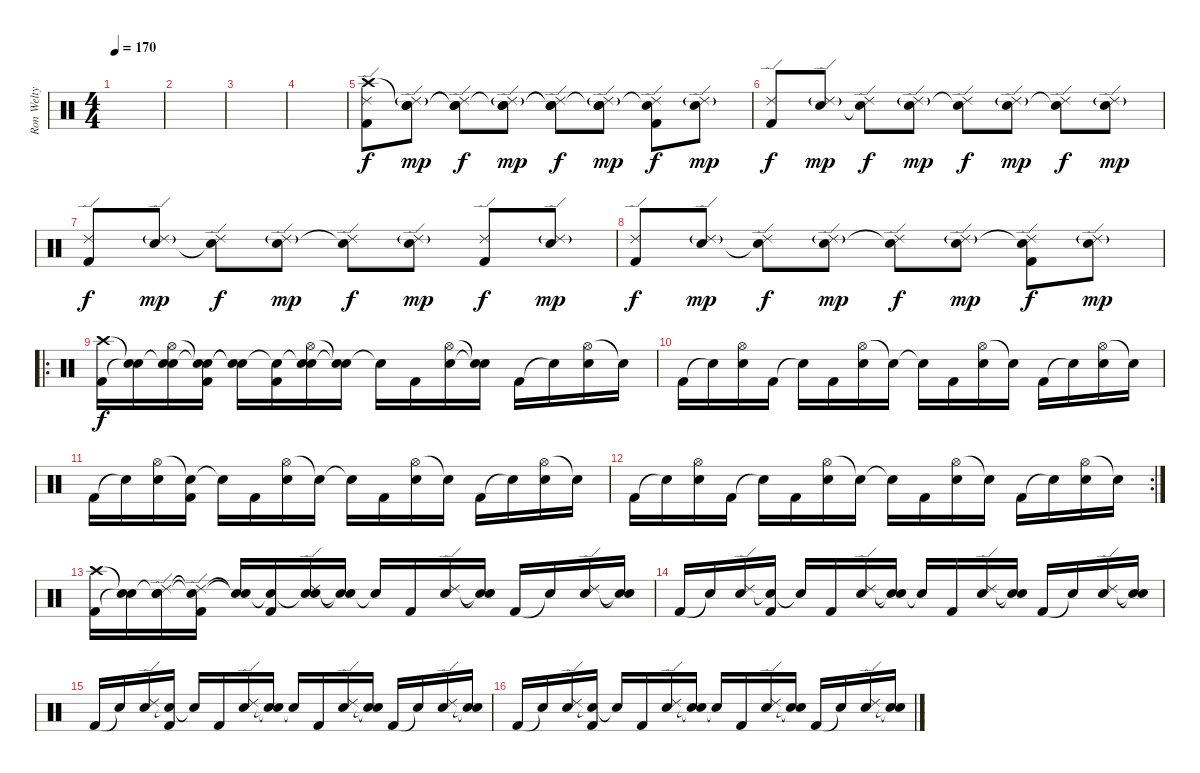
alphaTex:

\track ("Ron Welty" "Ron Welty") {instrument percussion}
\staff {score}
\articulation defaults
\ts (4 4)
\tempo 170
\clef neutral
\ks c
|
|
|
|
("Crash high (hit)" "Ride (edge) 2" "Kick (hit) 2").8 ("Snare (hit)"{t} "Ride (edge) 2"{g} "Electric Snare (hit)").8{dy mp} ("Snare (hit)"{t} "Ride (edge) 2" "Snare (hit)"{t}).8{dy f} ("Snare (hit)"{t} "Ride (edge) 2"{g} "Electric Snare (hit)").8{dy mp} ("Snare (hit)"{t} "Ride (edge) 2" "Snare (hit)"{t}).8{dy f} ("Snare (hit)"{t} "Ride (edge) 2"{g} "Electric Snare (hit)").8{dy mp} ("Snare (hit)"{t} "Ride (edge) 2" "Kick (hit) 2").8{dy f} ("Ride (edge) 2"{g} "Electric Snare (hit)").8{dy mp} |
("Ride (edge) 2" "Kick (hit) 2").8{dy f} ("Ride (edge) 2"{g} "Electric Snare (hit)").8{dy mp} ("Ride (edge) 2" "Snare (hit)"{t}).8{dy f} ("Ride (edge) 2"{g} "Electric Snare (hit)").8{dy mp} ("Ride (edge) 2" "Snare (hit)"{t}).8{dy f} ("Ride (edge) 2"{g} "Electric Snare (hit)").8{dy mp} ("Ride (edge) 2" "Snare (hit)"{t}).8{dy f} ("Ride (edge) 2"{g} "Electric Snare (hit)").8{dy mp} |
("Ride (edge) 2" "Kick (hit) 2").8{dy f} ("Ride (edge) 2"{g} "Electric Snare (hit)").8{dy mp} ("Ride (edge) 2" "Snare (hit)"{t}).8{dy f} ("Ride (edge) 2"{g} "Electric Snare (hit)").8{dy mp} ("Ride (edge) 2" "Snare (hit)"{t}).8{dy f} ("Ride (edge) 2"{g} "Electric Snare (hit)").8{dy mp} ("Ride (edge) 2" "Kick (hit) 2").8{dy f} ("Ride (edge) 2"{g} "Electric Snare (hit)").8{dy mp} |
("Ride (edge) 2" "Kick (hit) 2").8{dy f} ("Ride (edge) 2"{g} "Electric Snare (hit)").8{dy mp} ("Ride (edge) 2" "Snare (hit)"{t}).8{dy f} ("Ride (edge) 2"{g} "Electric Snare (hit)").8{dy mp} ("Ride (edge) 2" "Snare (hit)"{t}).8{dy f} ("Ride (edge) 2"{g} "Electric Snare (hit)").8{dy mp} ("Ride (edge) 2" "Snare (hit)"{t} "Kick (hit) 2").8{dy f} ("Ride (edge) 2"{g} "Electric Snare (hit)").8{dy mp} |
\ro
("Crash high (hit)" "Kick (hit) 2").16{dy f} ("Snare (hit)"{t} "Snare (hit)"{t}).16 ("Snare (hit)"{t} "Hi-Hat (open)" "Electric Snare (hit)").16 ("Snare (hit)"{t} "Snare (hit)"{t} "Kick (hit) 2").16 ("Snare (hit)"{t} "Snare (hit)"{t}).16 ("Snare (hit)"{t} "Kick (hit) 2").16 ("Snare (hit)"{t} "Hi-Hat (open)" "Electric Snare (hit)").16 ("Snare (hit)"{t} "Snare (hit)"{t}).16 "Snare (hit)"{t}.16 "Kick (hit) 2".16 ("Hi-Hat (open)" "Electric Snare (hit)").16 ("Snare (hit)"{t} "Snare (hit)"{t}).16 "Kick (hit) 2".16 "Snare (hit)"{t}.16 ("Hi-Hat (open)" "Electric Snare (hit)").16 "Snare (hit)"{t}.16 |
"Kick (hit) 2".16 "Snare (hit)"{t}.16 ("Hi-Hat (open)" "Electric Snare (hit)").16 "Kick (hit) 2".16 "Snare (hit)"{t}.16 "Kick (hit) 2".16 ("Hi-Hat (open)" "Electric Snare (hit)").16 "Snare (hit)"{t}.16 "Snare (hit)"{t}.16 "Kick (hit) 2".16 ("Hi-Hat (open)" "Electric Snare (hit)").16 "Snare (hit)"{t}.16 "Kick (hit) 2".16 "Snare (hit)"{t}.16 ("Hi-Hat (open)" "Electric Snare (hit)").16 "Snare (hit)"{t}.16 |
"Kick (hit) 2".16 "Snare (hit)"{t}.16 ("Hi-Hat (open)" "Electric Snare (hit)").16 ("Snare (hit)"{t} "Kick (hit) 2").16 "Snare (hit)"{t}.16 "Kick (hit) 2".16 ("Hi-Hat (open)" "Electric Snare (hit)").16 "Snare (hit)"{t}.16 "Snare (hit)"{t}.16 "Kick (hit) 2".16 ("Hi-Hat (open)" "Electric Snare (hit)").16 "Snare (hit)"{t}.16 "Kick (hit) 2".16 "Snare (hit)"{t}.16 ("Hi-Hat (open)" "Electric Snare (hit)").16 "Snare (hit)"{t}.16 |
\rc 2 "Kick (hit) 2".16 "Snare (hit)"{t}.16
("Hi-Hat (open)" "Electric Snare (hit)").16 "Kick (hit) 2".16 "Snare (hit)"{t}.16 "Kick (hit) 2".16 ("Hi-Hat (open)" "Electric Snare (hit)").16 "Snare (hit)"{t}.16 "Snare (hit)"{t}.16 "Kick (hit) 2".16 ("Hi-Hat (open)" "Electric Snare (hit)").16 "Snare (hit)"{t}.16 "Kick (hit) 2".16 "Snare (hit)"{t}.16 ("Hi-Hat (open)" "Electric Snare (hit)").16 "Snare (hit)"{t}.16 |
("Crash high (hit)" "Kick (hit) 2").16 ("Snare (hit)"{t} "Snare (hit)"{t}).16 ("Snare (hit)"{t} "Ride (edge) 2" "Electric Snare (hit)").16 ("Snare (hit)"{t} "Ride (edge) 2"{t} "Kick (hit) 2").16 ("Snare (hit)"{t} "Snare (hit)"{t}).16 ("Snare (hit)"{t} "Kick (hit) 2").16 ("Snare (hit)"{t} "Ride (edge) 2" "Electric Snare (hit)").16 ("Snare (hit)"{t} "Snare (hit)"{t}).16 "Snare (hit)"{t}.16 "Kick (hit) 2".16 ("Ride (edge) 2" "Electric Snare (hit)").16 ("Snare (hit)"{t} "Snare (hit)"{t}).16 "Kick (hit) 2".16 "Snare (hit)"{t}.16 ("Ride (edge) 2" "Electric Snare (hit)").16 ("Snare (hit)"{t} "Snare (hit)"{t}).16 |
"Kick (hit) 2".16 "Snare (hit)"{t}.16 ("Ride (edge) 2" "Electric Snare (hit)").16 ("Snare (hit)"{t} "Kick (hit) 2").16 "Snare (hit)"{t}.16 "Kick (hit) 2".16 ("Ride (edge) 2" "Electric Snare (hit)").16 ("Snare (hit)"{t} "Snare (hit)"{t}).16 "Snare (hit)"{t}.16 "Kick (hit) 2".16 ("Ride (edge) 2" "Electric Snare (hit)").16 ("Snare (hit)"{t} "Snare (hit)"{t}).16 "Kick (hit) 2".16 "Snare (hit)"{t}.16 ("Ride (edge) 2" "Electric Snare (hit)").16 ("Snare (hit)"{t} "Snare (hit)"{t}).16 |
"Kick (hit) 2".16 "Snare (hit)"{t}.16 ("Ride (edge) 2" "Electric Snare (hit)").16 ("Snare (hit)"{t} "Kick (hit) 2").16 "Snare (hit)"{t}.16 "Kick (hit) 2".16 ("Ride (edge) 2" "Electric Snare (hit)").16 ("Snare (hit)"{t} "Snare (hit)"{t}).16 "Snare (hit)"{t}.16 "Kick (hit) 2".16 ("Ride (edge) 2" "Electric Snare (hit)").16 ("Snare (hit)"{t} "Snare (hit)"{t}).16 "Kick (hit) 2".16 "Snare (hit)"{t}.16 ("Ride (edge) 2" "Electric Snare (hit)").16 ("Snare (hit)"{t} "Snare (hit)"{t}).16 |
"Kick (hit) 2".16 "Snare (hit)"{t}.16 ("Ride (edge) 2" "Electric Snare (hit)").16 ("Snare (hit)"{t} "Kick (hit) 2").16 "Snare (hit)"{t}.16 "Kick (hit) 2".16 ("Ride (edge) 2" "Electric Snare (hit)").16 ("Snare (hit)"{t} "Snare (hit)"{t}).16 "Snare (hit)"{t}.16 "Kick (hit) 2".16 ("Ride (edge) 2" "Electric Snare (hit)").16 ("Snare (hit)"{t} "Snare (hit)"{t}).16 "Kick (hit) 2".16 "Snare (hit)"{t}.16 ("Ride (edge) 2" "Electric Snare (hit)").16 ("Snare (hit)"{t} "Snare (hit)"{t}).16
